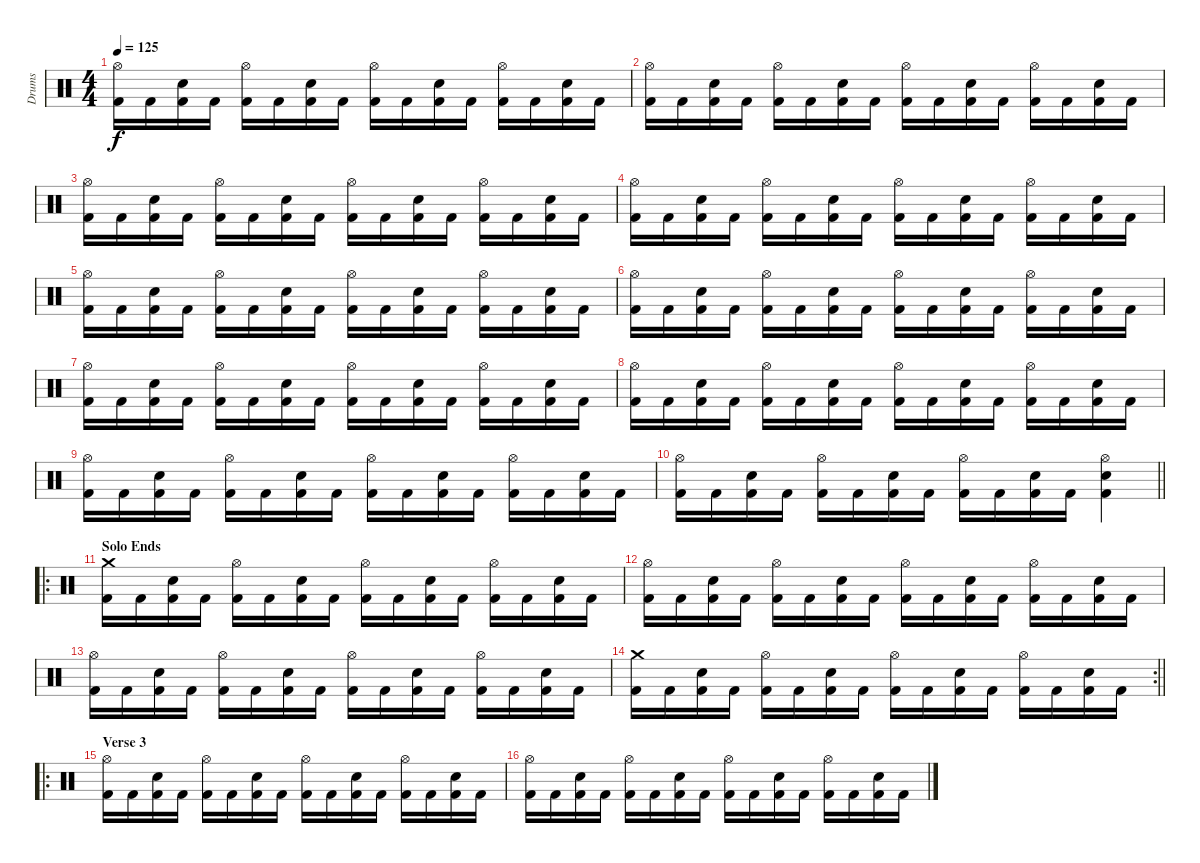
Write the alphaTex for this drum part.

\track ("Drums" "Drums") {instrument percussion}
\staff {score}
\articulation defaults
\ts (4 4)
\tempo 125
\clef neutral
\ks c
("Hi-Hat (open)" "Kick (hit) 2").16{dy f} "Kick (hit) 2".16 ("Snare (hit) 2" "Kick (hit) 2").16 "Kick (hit) 2".16 ("Hi-Hat (open)" "Kick (hit) 2").16 "Kick (hit) 2".16 ("Snare (hit) 2" "Kick (hit) 2").16 "Kick (hit) 2".16 ("Hi-Hat (open)" "Kick (hit) 2").16 "Kick (hit) 2".16 ("Snare (hit) 2" "Kick (hit) 2").16 "Kick (hit) 2".16 ("Hi-Hat (open)" "Kick (hit) 2").16 "Kick (hit) 2".16 ("Snare (hit) 2" "Kick (hit) 2").16 "Kick (hit) 2".16 |
("Hi-Hat (open)" "Kick (hit) 2").16 "Kick (hit) 2".16 ("Snare (hit) 2" "Kick (hit) 2").16 "Kick (hit) 2".16 ("Hi-Hat (open)" "Kick (hit) 2").16 "Kick (hit) 2".16 ("Snare (hit) 2" "Kick (hit) 2").16 "Kick (hit) 2".16 ("Hi-Hat (open)" "Kick (hit) 2").16 "Kick (hit) 2".16 ("Snare (hit) 2" "Kick (hit) 2").16 "Kick (hit) 2".16 ("Hi-Hat (open)" "Kick (hit) 2").16 "Kick (hit) 2".16 ("Snare (hit) 2" "Kick (hit) 2").16 "Kick (hit) 2".16 |
("Hi-Hat (open)" "Kick (hit) 2").16 "Kick (hit) 2".16 ("Snare (hit) 2" "Kick (hit) 2").16 "Kick (hit) 2".16 ("Hi-Hat (open)" "Kick (hit) 2").16 "Kick (hit) 2".16 ("Snare (hit) 2" "Kick (hit) 2").16 "Kick (hit) 2".16 ("Hi-Hat (open)" "Kick (hit) 2").16 "Kick (hit) 2".16 ("Snare (hit) 2" "Kick (hit) 2").16 "Kick (hit) 2".16 ("Hi-Hat (open)" "Kick (hit) 2").16 "Kick (hit) 2".16 ("Snare (hit) 2" "Kick (hit) 2").16 "Kick (hit) 2".16 |
("Hi-Hat (open)" "Kick (hit) 2").16 "Kick (hit) 2".16 ("Snare (hit) 2" "Kick (hit) 2").16 "Kick (hit) 2".16 ("Hi-Hat (open)" "Kick (hit) 2").16 "Kick (hit) 2".16 ("Snare (hit) 2" "Kick (hit) 2").16 "Kick (hit) 2".16 ("Hi-Hat (open)" "Kick (hit) 2").16 "Kick (hit) 2".16 ("Snare (hit) 2" "Kick (hit) 2").16 "Kick (hit) 2".16 ("Hi-Hat (open)" "Kick (hit) 2").16 "Kick (hit) 2".16 ("Snare (hit) 2" "Kick (hit) 2").16 "Kick (hit) 2".16 |
("Hi-Hat (open)" "Kick (hit) 2").16 "Kick (hit) 2".16 ("Snare (hit) 2" "Kick (hit) 2").16 "Kick (hit) 2".16 ("Hi-Hat (open)" "Kick (hit) 2").16 "Kick (hit) 2".16 ("Snare (hit) 2" "Kick (hit) 2").16 "Kick (hit) 2".16 ("Hi-Hat (open)" "Kick (hit) 2").16 "Kick (hit) 2".16 ("Snare (hit) 2" "Kick (hit) 2").16 "Kick (hit) 2".16 ("Hi-Hat (open)" "Kick (hit) 2").16 "Kick (hit) 2".16 ("Snare (hit) 2" "Kick (hit) 2").16 "Kick (hit) 2".16 |
("Hi-Hat (open)" "Kick (hit) 2").16 "Kick (hit) 2".16 ("Snare (hit) 2" "Kick (hit) 2").16 "Kick (hit) 2".16 ("Hi-Hat (open)" "Kick (hit) 2").16 "Kick (hit) 2".16 ("Snare (hit) 2" "Kick (hit) 2").16 "Kick (hit) 2".16 ("Hi-Hat (open)" "Kick (hit) 2").16 "Kick (hit) 2".16 ("Snare (hit) 2" "Kick (hit) 2").16 "Kick (hit) 2".16 ("Hi-Hat (open)" "Kick (hit) 2").16 "Kick (hit) 2".16 ("Snare (hit) 2" "Kick (hit) 2").16 "Kick (hit) 2".16 |
("Hi-Hat (open)" "Kick (hit) 2").16 "Kick (hit) 2".16 ("Snare (hit) 2" "Kick (hit) 2").16 "Kick (hit) 2".16 ("Hi-Hat (open)" "Kick (hit) 2").16 "Kick (hit) 2".16 ("Snare (hit) 2" "Kick (hit) 2").16 "Kick (hit) 2".16 ("Hi-Hat (open)" "Kick (hit) 2").16 "Kick (hit) 2".16 ("Snare (hit) 2" "Kick (hit) 2").16 "Kick (hit) 2".16 ("Hi-Hat (open)" "Kick (hit) 2").16 "Kick (hit) 2".16 ("Snare (hit) 2" "Kick (hit) 2").16 "Kick (hit) 2".16 |
("Hi-Hat (open)" "Kick (hit) 2").16 "Kick (hit) 2".16 ("Snare (hit) 2" "Kick (hit) 2").16 "Kick (hit) 2".16 ("Hi-Hat (open)" "Kick (hit) 2").16 "Kick (hit) 2".16 ("Snare (hit) 2" "Kick (hit) 2").16 "Kick (hit) 2".16 ("Hi-Hat (open)" "Kick (hit) 2").16 "Kick (hit) 2".16 ("Snare (hit) 2" "Kick (hit) 2").16 "Kick (hit) 2".16 ("Hi-Hat (open)" "Kick (hit) 2").16 "Kick (hit) 2".16 ("Snare (hit) 2" "Kick (hit) 2").16 "Kick (hit) 2".16 |
("Hi-Hat (open)" "Kick (hit) 2").16 "Kick (hit) 2".16 ("Snare (hit) 2" "Kick (hit) 2").16 "Kick (hit) 2".16 ("Hi-Hat (open)" "Kick (hit) 2").16 "Kick (hit) 2".16 ("Snare (hit) 2" "Kick (hit) 2").16 "Kick (hit) 2".16 ("Hi-Hat (open)" "Kick (hit) 2").16 "Kick (hit) 2".16 ("Snare (hit) 2" "Kick (hit) 2").16 "Kick (hit) 2".16 ("Hi-Hat (open)" "Kick (hit) 2").16 "Kick (hit) 2".16 ("Snare (hit) 2" "Kick (hit) 2").16 "Kick (hit) 2".16 |
\barLineRight lightlight
("Hi-Hat (open)" "Kick (hit) 2").16 "Kick (hit) 2".16 ("Snare (hit) 2" "Kick (hit) 2").16 "Kick (hit) 2".16 ("Hi-Hat (open)" "Kick (hit) 2").16 "Kick (hit) 2".16 ("Snare (hit) 2" "Kick (hit) 2").16 "Kick (hit) 2".16 ("Hi-Hat (open)" "Kick (hit) 2").16 "Kick (hit) 2".16 ("Snare (hit) 2" "Kick (hit) 2").16 "Kick (hit) 2".16 ("Hi-Hat (open)" "Snare (hit) 2" "Kick (hit) 2").4 |
\ro
\section ("" "Solo Ends")
("Crash medium (hit)" "Kick (hit) 2").16 "Kick (hit) 2".16 ("Snare (hit) 2" "Kick (hit) 2").16 "Kick (hit) 2".16 ("Hi-Hat (open)" "Kick (hit) 2").16 "Kick (hit) 2".16 ("Snare (hit) 2" "Kick (hit) 2").16 "Kick (hit) 2".16 ("Hi-Hat (open)" "Kick (hit) 2").16 "Kick (hit) 2".16 ("Snare (hit) 2" "Kick (hit) 2").16 "Kick (hit) 2".16 ("Hi-Hat (open)" "Kick (hit) 2").16 "Kick (hit) 2".16 ("Snare (hit) 2" "Kick (hit) 2").16 "Kick (hit) 2".16 |
("Hi-Hat (open)" "Kick (hit) 2").16 "Kick (hit) 2".16 ("Snare (hit) 2" "Kick (hit) 2").16 "Kick (hit) 2".16 ("Hi-Hat (open)" "Kick (hit) 2").16 "Kick (hit) 2".16 ("Snare (hit) 2" "Kick (hit) 2").16 "Kick (hit) 2".16 ("Hi-Hat (open)" "Kick (hit) 2").16 "Kick (hit) 2".16 ("Snare (hit) 2" "Kick (hit) 2").16 "Kick (hit) 2".16 ("Hi-Hat (open)" "Kick (hit) 2").16 "Kick (hit) 2".16 ("Snare (hit) 2" "Kick (hit) 2").16 "Kick (hit) 2".16 |
("Hi-Hat (open)" "Kick (hit) 2").16 "Kick (hit) 2".16 ("Snare (hit) 2" "Kick (hit) 2").16 "Kick (hit) 2".16 ("Hi-Hat (open)" "Kick (hit) 2").16 "Kick (hit) 2".16 ("Snare (hit) 2" "Kick (hit) 2").16 "Kick (hit) 2".16 ("Hi-Hat (open)" "Kick (hit) 2").16 "Kick (hit) 2".16 ("Snare (hit) 2" "Kick (hit) 2").16 "Kick (hit) 2".16 ("Hi-Hat (open)" "Kick (hit) 2").16 "Kick (hit) 2".16 ("Snare (hit) 2" "Kick (hit) 2").16 "Kick (hit) 2".16 |
\rc 2
\barLineRight lightlight
("Crash medium (hit)" "Kick (hit) 2").16 "Kick (hit) 2".16 ("Snare (hit) 2" "Kick (hit) 2").16 "Kick (hit) 2".16 ("Hi-Hat (open)" "Kick (hit) 2").16 "Kick (hit) 2".16 ("Snare (hit) 2" "Kick (hit) 2").16 "Kick (hit) 2".16 ("Hi-Hat (open)" "Kick (hit) 2").16 "Kick (hit) 2".16 ("Snare (hit) 2" "Kick (hit) 2").16 "Kick (hit) 2".16 ("Hi-Hat (open)" "Kick (hit) 2").16 "Kick (hit) 2".16 ("Snare (hit) 2" "Kick (hit) 2").16 "Kick (hit) 2".16 |
\ro
\section ("" "Verse 3")
("Hi-Hat (open)" "Kick (hit) 2").16 "Kick (hit) 2".16 ("Snare (hit) 2" "Kick (hit) 2").16 "Kick (hit) 2".16 ("Hi-Hat (open)" "Kick (hit) 2").16 "Kick (hit) 2".16 ("Snare (hit) 2" "Kick (hit) 2").16 "Kick (hit) 2".16 ("Hi-Hat (open)" "Kick (hit) 2").16 "Kick (hit) 2".16 ("Snare (hit) 2" "Kick (hit) 2").16 "Kick (hit) 2".16 ("Hi-Hat (open)" "Kick (hit) 2").16 "Kick (hit) 2".16 ("Snare (hit) 2" "Kick (hit) 2").16 "Kick (hit) 2".16 |
("Hi-Hat (open)" "Kick (hit) 2").16 "Kick (hit) 2".16 ("Snare (hit) 2" "Kick (hit) 2").16 "Kick (hit) 2".16 ("Hi-Hat (open)" "Kick (hit) 2").16 "Kick (hit) 2".16 ("Snare (hit) 2" "Kick (hit) 2").16 "Kick (hit) 2".16 ("Hi-Hat (open)" "Kick (hit) 2").16 "Kick (hit) 2".16 ("Snare (hit) 2" "Kick (hit) 2").16 "Kick (hit) 2".16 ("Hi-Hat (open)" "Kick (hit) 2").16 "Kick (hit) 2".16 ("Snare (hit) 2" "Kick (hit) 2").16 "Kick (hit) 2".16
